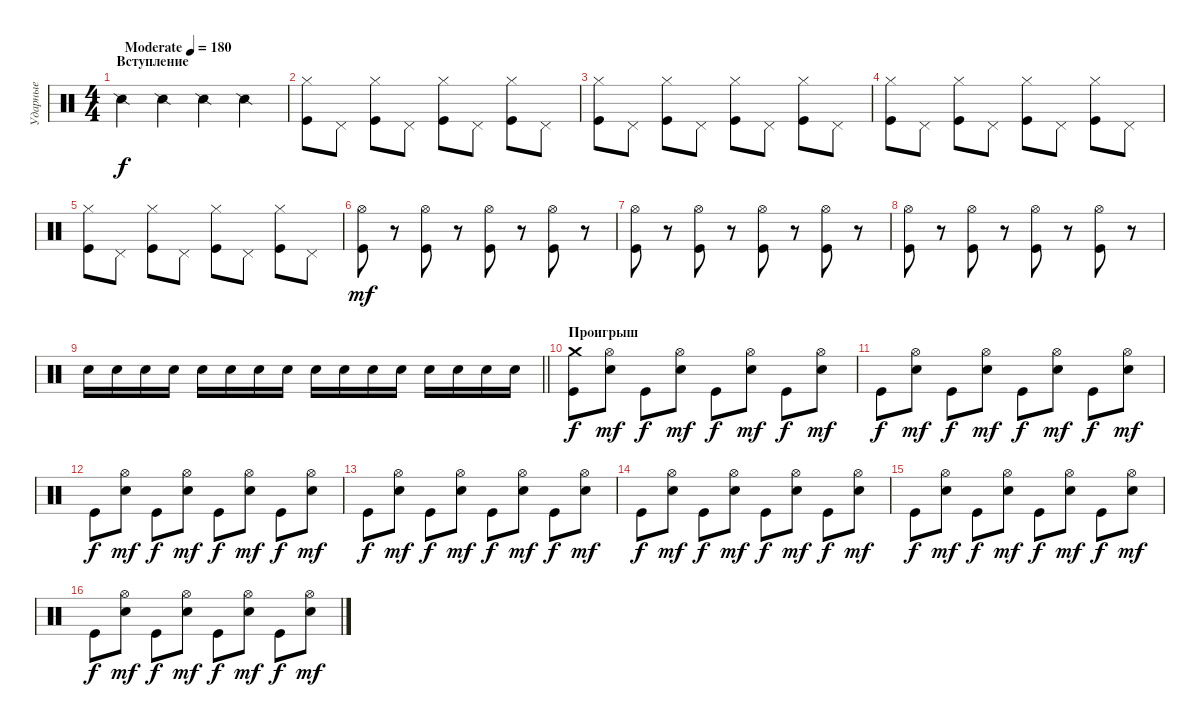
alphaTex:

\track ("Ударные" "Ударные") {instrument percussion}
\staff {score}
\articulation defaults
\ts (4 4)
\section ("" "Вступление")
\tempo (180 "Moderate")
\clef neutral
\ks c "Snare (side stick) 2".4{dy f} "Snare (side stick) 2".4 "Snare (side stick) 2".4 "Snare (side stick) 2".4
|
("Hi-Hat (closed)" "Kick (hit)").8 "Pedal Hi-Hat (hit)".8 ("Hi-Hat (closed)" "Kick (hit)").8 "Pedal Hi-Hat (hit)".8 ("Hi-Hat (closed)" "Kick (hit)").8 "Pedal Hi-Hat (hit)".8 ("Hi-Hat (closed)" "Kick (hit)").8 "Pedal Hi-Hat (hit)".8 |
("Hi-Hat (closed)" "Kick (hit)").8 "Pedal Hi-Hat (hit)".8 ("Hi-Hat (closed)" "Kick (hit)").8 "Pedal Hi-Hat (hit)".8 ("Hi-Hat (closed)" "Kick (hit)").8 "Pedal Hi-Hat (hit)".8 ("Hi-Hat (closed)" "Kick (hit)").8 "Pedal Hi-Hat (hit)".8 |
("Hi-Hat (closed)" "Kick (hit)").8 "Pedal Hi-Hat (hit)".8 ("Hi-Hat (closed)" "Kick (hit)").8 "Pedal Hi-Hat (hit)".8 ("Hi-Hat (closed)" "Kick (hit)").8 "Pedal Hi-Hat (hit)".8 ("Hi-Hat (closed)" "Kick (hit)").8 "Pedal Hi-Hat (hit)".8 |
("Hi-Hat (closed)" "Kick (hit)").8 "Pedal Hi-Hat (hit)".8 ("Hi-Hat (closed)" "Kick (hit)").8 "Pedal Hi-Hat (hit)".8 ("Hi-Hat (closed)" "Kick (hit)").8 "Pedal Hi-Hat (hit)".8 ("Hi-Hat (closed)" "Kick (hit)").8 "Pedal Hi-Hat (hit)".8 |
("Hi-Hat (open)" "Kick (hit)").8{dy mf} r.8 ("Hi-Hat (open)" "Kick (hit)").8 r.8 ("Hi-Hat (open)" "Kick (hit)").8 r.8 ("Hi-Hat (open)" "Kick (hit)").8 r.8 |
("Hi-Hat (open)" "Kick (hit)").8 r.8 ("Hi-Hat (open)" "Kick (hit)").8 r.8 ("Hi-Hat (open)" "Kick (hit)").8 r.8 ("Hi-Hat (open)" "Kick (hit)").8 r.8 |
("Hi-Hat (open)" "Kick (hit)").8 r.8 ("Hi-Hat (open)" "Kick (hit)").8 r.8 ("Hi-Hat (open)" "Kick (hit)").8 r.8 ("Hi-Hat (open)" "Kick (hit)").8 r.8 |
\barLineRight lightlight "Electric Snare (hit)".16 "Electric Snare (hit)".16 "Electric Snare (hit)".16 "Electric Snare (hit)".16 "Electric Snare (hit)".16 "Electric Snare (hit)".16 "Electric Snare (hit)".16 "Electric Snare (hit)".16 "Electric Snare (hit)".16 "Electric Snare (hit)".16 "Electric Snare (hit)".16 "Electric Snare (hit)".16 "Electric Snare (hit)".16 "Electric Snare (hit)".16 "Electric Snare (hit)".16 "Electric Snare (hit)".16
|
\section ("" "Проигрыш")
("Kick (hit)" "Crash medium (hit)").8{dy f} ("Electric Snare (hit)" "Hi-Hat (open)").8{dy mf} "Kick (hit)".8{dy f} ("Electric Snare (hit)" "Hi-Hat (open)").8{dy mf} "Kick (hit)".8{dy f} ("Electric Snare (hit)" "Hi-Hat (open)").8{dy mf} "Kick (hit)".8{dy f} ("Electric Snare (hit)" "Hi-Hat (open)").8{dy mf} |
"Kick (hit)".8{dy f} ("Electric Snare (hit)" "Hi-Hat (open)").8{dy mf} "Kick (hit)".8{dy f} ("Electric Snare (hit)" "Hi-Hat (open)").8{dy mf} "Kick (hit)".8{dy f} ("Electric Snare (hit)" "Hi-Hat (open)").8{dy mf} "Kick (hit)".8{dy f} ("Electric Snare (hit)" "Hi-Hat (open)").8{dy mf} |
"Kick (hit)".8{dy f} ("Electric Snare (hit)" "Hi-Hat (open)").8{dy mf} "Kick (hit)".8{dy f} ("Electric Snare (hit)" "Hi-Hat (open)").8{dy mf} "Kick (hit)".8{dy f} ("Electric Snare (hit)" "Hi-Hat (open)").8{dy mf} "Kick (hit)".8{dy f} ("Electric Snare (hit)" "Hi-Hat (open)").8{dy mf} |
"Kick (hit)".8{dy f} ("Electric Snare (hit)" "Hi-Hat (open)").8{dy mf} "Kick (hit)".8{dy f} ("Electric Snare (hit)" "Hi-Hat (open)").8{dy mf} "Kick (hit)".8{dy f} ("Electric Snare (hit)" "Hi-Hat (open)").8{dy mf} "Kick (hit)".8{dy f} ("Electric Snare (hit)" "Hi-Hat (open)").8{dy mf} |
"Kick (hit)".8{dy f} ("Electric Snare (hit)" "Hi-Hat (open)").8{dy mf} "Kick (hit)".8{dy f} ("Electric Snare (hit)" "Hi-Hat (open)").8{dy mf} "Kick (hit)".8{dy f} ("Electric Snare (hit)" "Hi-Hat (open)").8{dy mf} "Kick (hit)".8{dy f} ("Electric Snare (hit)" "Hi-Hat (open)").8{dy mf} |
"Kick (hit)".8{dy f} ("Electric Snare (hit)" "Hi-Hat (open)").8{dy mf} "Kick (hit)".8{dy f} ("Electric Snare (hit)" "Hi-Hat (open)").8{dy mf} "Kick (hit)".8{dy f} ("Electric Snare (hit)" "Hi-Hat (open)").8{dy mf} "Kick (hit)".8{dy f} ("Electric Snare (hit)" "Hi-Hat (open)").8{dy mf} |
"Kick (hit)".8{dy f} ("Electric Snare (hit)" "Hi-Hat (open)").8{dy mf} "Kick (hit)".8{dy f} ("Electric Snare (hit)" "Hi-Hat (open)").8{dy mf} "Kick (hit)".8{dy f} ("Electric Snare (hit)" "Hi-Hat (open)").8{dy mf} "Kick (hit)".8{dy f} ("Electric Snare (hit)" "Hi-Hat (open)").8{dy mf}
